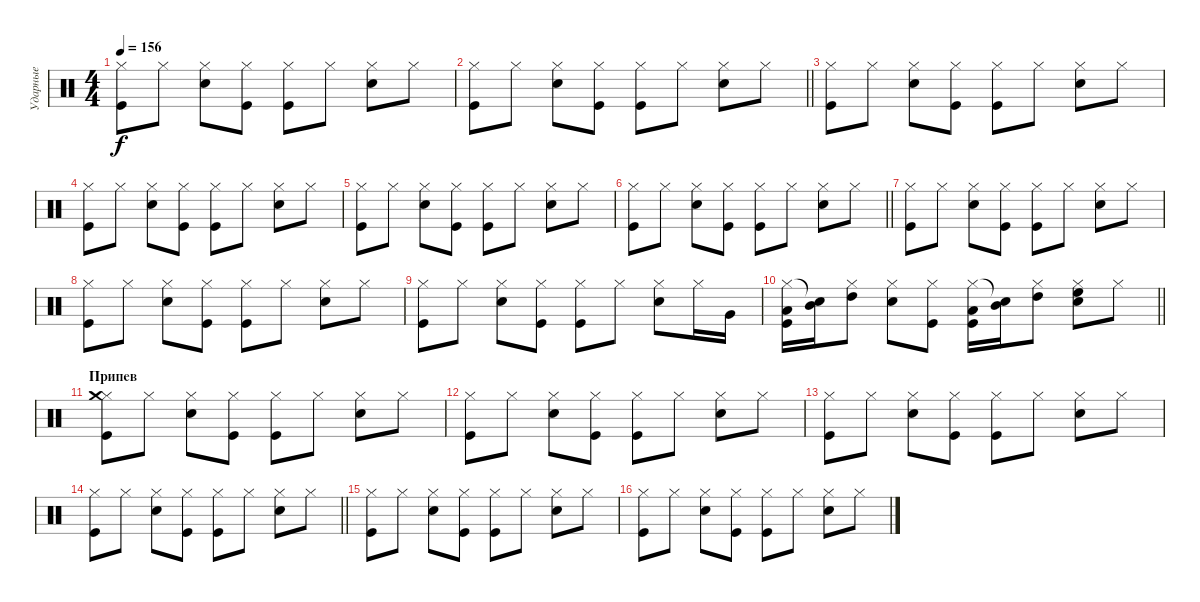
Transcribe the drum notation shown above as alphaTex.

\track ("Ударные" "Ударные") {instrument percussion}
\staff {score}
\articulation defaults
\ts (4 4)
\tempo 156
\clef neutral
\ks c
("Hi-Hat (closed)" "Kick (hit)").8{dy f} "Hi-Hat (closed)".8 ("Hi-Hat (closed)" "Snare (hit) 2").8 ("Hi-Hat (closed)" "Kick (hit)").8 ("Hi-Hat (closed)" "Kick (hit)").8 "Hi-Hat (closed)".8 ("Hi-Hat (closed)" "Snare (hit) 2").8 "Hi-Hat (closed)".8 |
\barLineRight lightlight
("Hi-Hat (closed)" "Kick (hit)").8 "Hi-Hat (closed)".8 ("Hi-Hat (closed)" "Snare (hit) 2").8 ("Hi-Hat (closed)" "Kick (hit)").8 ("Hi-Hat (closed)" "Kick (hit)").8 "Hi-Hat (closed)".8 ("Hi-Hat (closed)" "Snare (hit) 2").8 "Hi-Hat (closed)".8 |
("Hi-Hat (closed)" "Kick (hit)").8 "Hi-Hat (closed)".8 ("Hi-Hat (closed)" "Snare (hit) 2").8 ("Hi-Hat (closed)" "Kick (hit)").8 ("Hi-Hat (closed)" "Kick (hit)").8 "Hi-Hat (closed)".8 ("Hi-Hat (closed)" "Snare (hit) 2").8 "Hi-Hat (closed)".8 |
("Hi-Hat (closed)" "Kick (hit)").8 "Hi-Hat (closed)".8 ("Hi-Hat (closed)" "Snare (hit) 2").8 ("Hi-Hat (closed)" "Kick (hit)").8 ("Hi-Hat (closed)" "Kick (hit)").8 "Hi-Hat (closed)".8 ("Hi-Hat (closed)" "Snare (hit) 2").8 "Hi-Hat (closed)".8 |
("Hi-Hat (closed)" "Kick (hit)").8 "Hi-Hat (closed)".8 ("Hi-Hat (closed)" "Snare (hit) 2").8 ("Hi-Hat (closed)" "Kick (hit)").8 ("Hi-Hat (closed)" "Kick (hit)").8 "Hi-Hat (closed)".8 ("Hi-Hat (closed)" "Snare (hit) 2").8 "Hi-Hat (closed)".8 |
\barLineRight lightlight
("Hi-Hat (closed)" "Kick (hit)").8 "Hi-Hat (closed)".8 ("Hi-Hat (closed)" "Snare (hit) 2").8 ("Hi-Hat (closed)" "Kick (hit)").8 ("Hi-Hat (closed)" "Kick (hit)").8 "Hi-Hat (closed)".8 ("Hi-Hat (closed)" "Snare (hit) 2").8 "Hi-Hat (closed)".8 |
("Hi-Hat (closed)" "Kick (hit)").8 "Hi-Hat (closed)".8 ("Hi-Hat (closed)" "Snare (hit) 2").8 ("Hi-Hat (closed)" "Kick (hit)").8 ("Hi-Hat (closed)" "Kick (hit)").8 "Hi-Hat (closed)".8 ("Hi-Hat (closed)" "Snare (hit) 2").8 "Hi-Hat (closed)".8 |
("Hi-Hat (closed)" "Kick (hit)").8 "Hi-Hat (closed)".8 ("Hi-Hat (closed)" "Snare (hit) 2").8 ("Hi-Hat (closed)" "Kick (hit)").8 ("Hi-Hat (closed)" "Kick (hit)").8 "Hi-Hat (closed)".8 ("Hi-Hat (closed)" "Snare (hit) 2").8 "Hi-Hat (closed)".8 |
("Hi-Hat (closed)" "Kick (hit)").8 "Hi-Hat (closed)".8 ("Hi-Hat (closed)" "Snare (hit) 2").8 ("Hi-Hat (closed)" "Kick (hit)").8 ("Hi-Hat (closed)" "Kick (hit)").8 "Hi-Hat (closed)".8 ("Hi-Hat (closed)" "Snare (hit) 2").8 "Hi-Hat (closed)".16 "Very Low Tom (hit)".16 |
\barLineRight lightlight
("Hi-Hat (closed)" "Kick (hit)" "Low Tom (hit)").16 ("Snare (hit)"{t} "Mid Tom (hit)").16 ("Hi-Hat (closed)" "High Tom (hit)").8 ("Hi-Hat (closed)" "Snare (hit) 2").8 ("Hi-Hat (closed)" "Kick (hit)").8 ("Hi-Hat (closed)" "Kick (hit)" "Low Tom (hit)").16 ("Snare (hit)"{t} "Mid Tom (hit)").16 ("Hi-Hat (closed)" "High Tom (hit)").8 ("Hi-Hat (closed)" "Snare (hit) 2" "High Floor Tom (hit)").8 "Hi-Hat (closed)".8 |
\section ("" "Припев")
("Hi-Hat (closed)" "Kick (hit)" "Crash medium (hit)").8 "Hi-Hat (closed)".8 ("Hi-Hat (closed)" "Snare (hit) 2").8 ("Hi-Hat (closed)" "Kick (hit)").8 ("Hi-Hat (closed)" "Kick (hit)").8 "Hi-Hat (closed)".8 ("Hi-Hat (closed)" "Snare (hit) 2").8 "Hi-Hat (closed)".8 |
("Hi-Hat (closed)" "Kick (hit)").8 "Hi-Hat (closed)".8 ("Hi-Hat (closed)" "Snare (hit) 2").8 ("Hi-Hat (closed)" "Kick (hit)").8 ("Hi-Hat (closed)" "Kick (hit)").8 "Hi-Hat (closed)".8 ("Hi-Hat (closed)" "Snare (hit) 2").8 "Hi-Hat (closed)".8 |
("Hi-Hat (closed)" "Kick (hit)").8 "Hi-Hat (closed)".8 ("Hi-Hat (closed)" "Snare (hit) 2").8 ("Hi-Hat (closed)" "Kick (hit)").8 ("Hi-Hat (closed)" "Kick (hit)").8 "Hi-Hat (closed)".8 ("Hi-Hat (closed)" "Snare (hit) 2").8 "Hi-Hat (closed)".8 |
\barLineRight lightlight
("Hi-Hat (closed)" "Kick (hit)").8 "Hi-Hat (closed)".8 ("Hi-Hat (closed)" "Snare (hit) 2").8 ("Hi-Hat (closed)" "Kick (hit)").8 ("Hi-Hat (closed)" "Kick (hit)").8 "Hi-Hat (closed)".8 ("Hi-Hat (closed)" "Snare (hit) 2").8 "Hi-Hat (closed)".8 |
("Hi-Hat (closed)" "Kick (hit)").8 "Hi-Hat (closed)".8 ("Hi-Hat (closed)" "Snare (hit) 2").8 ("Hi-Hat (closed)" "Kick (hit)").8 ("Hi-Hat (closed)" "Kick (hit)").8 "Hi-Hat (closed)".8 ("Hi-Hat (closed)" "Snare (hit) 2").8 "Hi-Hat (closed)".8 |
("Hi-Hat (closed)" "Kick (hit)").8 "Hi-Hat (closed)".8 ("Hi-Hat (closed)" "Snare (hit) 2").8 ("Hi-Hat (closed)" "Kick (hit)").8 ("Hi-Hat (closed)" "Kick (hit)").8 "Hi-Hat (closed)".8 ("Hi-Hat (closed)" "Snare (hit) 2").8 "Hi-Hat (closed)".8
